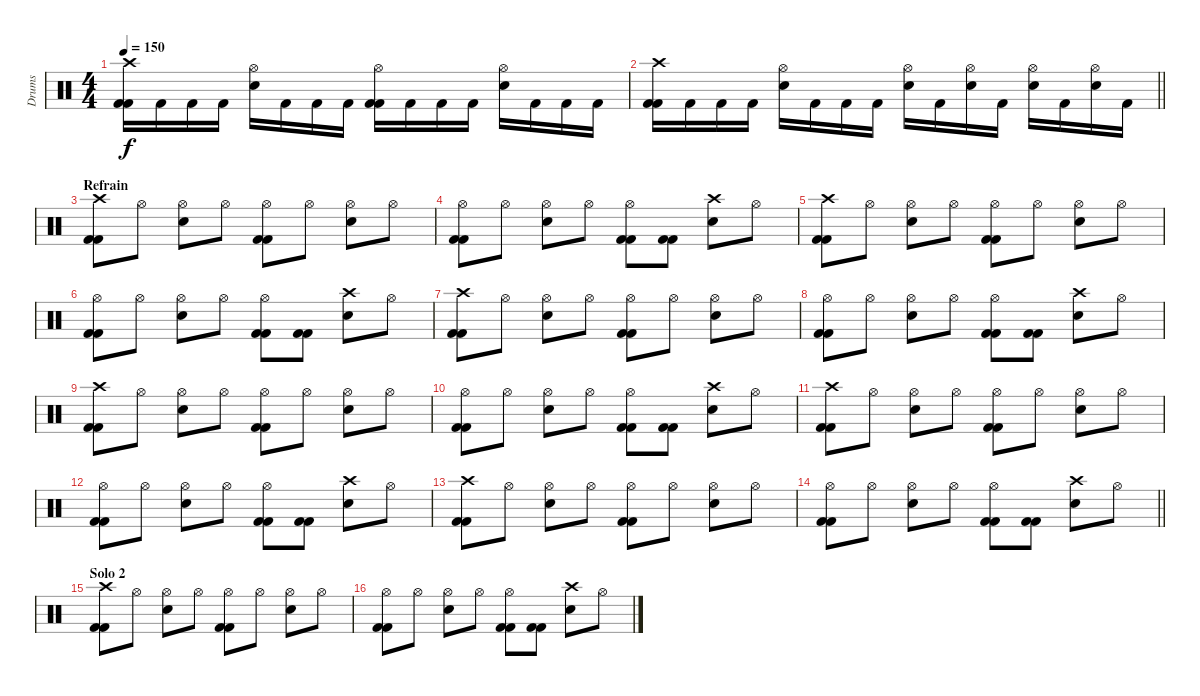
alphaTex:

\track ("Drums" "Drums") {instrument percussion}
\staff {score}
\articulation defaults
\ts (4 4)
\tempo 150
\clef neutral
\ks c
("Crash high (hit)" "Kick (hit) 2" "Kick (hit) 2").16{dy f} "Kick (hit) 2".16 "Kick (hit) 2".16 "Kick (hit) 2".16 ("Electric Snare (hit)" "Hi-Hat (open)").16 "Kick (hit) 2".16 "Kick (hit) 2".16 "Kick (hit) 2".16 ("Hi-Hat (open)" "Kick (hit) 2" "Kick (hit) 2").16 "Kick (hit) 2".16 "Kick (hit) 2".16 "Kick (hit) 2".16 ("Electric Snare (hit)" "Hi-Hat (open)").16 "Kick (hit) 2".16 "Kick (hit) 2".16 "Kick (hit) 2".16 |
\barLineRight lightlight
("Crash high (hit)" "Kick (hit) 2" "Kick (hit) 2").16 "Kick (hit) 2".16 "Kick (hit) 2".16 "Kick (hit) 2".16 ("Electric Snare (hit)" "Hi-Hat (open)").16 "Kick (hit) 2".16 "Kick (hit) 2".16 "Kick (hit) 2".16 ("Hi-Hat (open)" "Electric Snare (hit)").16 "Kick (hit) 2".16 ("Electric Snare (hit)" "Hi-Hat (open)").16 "Kick (hit) 2".16 ("Electric Snare (hit)" "Hi-Hat (open)").16 "Kick (hit) 2".16 ("Hi-Hat (open)" "Electric Snare (hit)").16 "Kick (hit) 2".16 |
\section ("" "Refrain")
("Crash high (hit)" "Kick (hit) 2" "Kick (hit) 2").8 "Hi-Hat (open)".8 ("Electric Snare (hit)" "Hi-Hat (open)").8 "Hi-Hat (open)".8 ("Hi-Hat (open)" "Kick (hit) 2" "Kick (hit) 2").8 "Hi-Hat (open)".8 ("Electric Snare (hit)" "Hi-Hat (open)").8 "Hi-Hat (open)".8 |
("Hi-Hat (open)" "Kick (hit) 2" "Kick (hit) 2").8 "Hi-Hat (open)".8 ("Electric Snare (hit)" "Hi-Hat (open)").8 "Hi-Hat (open)".8 ("Hi-Hat (open)" "Kick (hit) 2" "Kick (hit) 2").8 ("Kick (hit) 2" "Kick (hit) 2").8 ("Electric Snare (hit)" "Crash high (hit)").8 "Hi-Hat (open)".8 |
("Crash high (hit)" "Kick (hit) 2" "Kick (hit) 2").8 "Hi-Hat (open)".8 ("Electric Snare (hit)" "Hi-Hat (open)").8 "Hi-Hat (open)".8 ("Hi-Hat (open)" "Kick (hit) 2" "Kick (hit) 2").8 "Hi-Hat (open)".8 ("Electric Snare (hit)" "Hi-Hat (open)").8 "Hi-Hat (open)".8 |
("Hi-Hat (open)" "Kick (hit) 2" "Kick (hit) 2").8 "Hi-Hat (open)".8 ("Electric Snare (hit)" "Hi-Hat (open)").8 "Hi-Hat (open)".8 ("Hi-Hat (open)" "Kick (hit) 2" "Kick (hit) 2").8 ("Kick (hit) 2" "Kick (hit) 2").8 ("Electric Snare (hit)" "Crash high (hit)").8 "Hi-Hat (open)".8 |
("Crash high (hit)" "Kick (hit) 2" "Kick (hit) 2").8 "Hi-Hat (open)".8 ("Electric Snare (hit)" "Hi-Hat (open)").8 "Hi-Hat (open)".8 ("Hi-Hat (open)" "Kick (hit) 2" "Kick (hit) 2").8 "Hi-Hat (open)".8 ("Electric Snare (hit)" "Hi-Hat (open)").8 "Hi-Hat (open)".8 |
("Hi-Hat (open)" "Kick (hit) 2" "Kick (hit) 2").8 "Hi-Hat (open)".8 ("Electric Snare (hit)" "Hi-Hat (open)").8 "Hi-Hat (open)".8 ("Hi-Hat (open)" "Kick (hit) 2" "Kick (hit) 2").8 ("Kick (hit) 2" "Kick (hit) 2").8 ("Electric Snare (hit)" "Crash high (hit)").8 "Hi-Hat (open)".8 |
("Crash high (hit)" "Kick (hit) 2" "Kick (hit) 2").8 "Hi-Hat (open)".8 ("Electric Snare (hit)" "Hi-Hat (open)").8 "Hi-Hat (open)".8 ("Hi-Hat (open)" "Kick (hit) 2" "Kick (hit) 2").8 "Hi-Hat (open)".8 ("Electric Snare (hit)" "Hi-Hat (open)").8 "Hi-Hat (open)".8 |
("Hi-Hat (open)" "Kick (hit) 2" "Kick (hit) 2").8 "Hi-Hat (open)".8 ("Electric Snare (hit)" "Hi-Hat (open)").8 "Hi-Hat (open)".8 ("Hi-Hat (open)" "Kick (hit) 2" "Kick (hit) 2").8 ("Kick (hit) 2" "Kick (hit) 2").8 ("Electric Snare (hit)" "Crash high (hit)").8 "Hi-Hat (open)".8 |
("Crash high (hit)" "Kick (hit) 2" "Kick (hit) 2").8 "Hi-Hat (open)".8 ("Electric Snare (hit)" "Hi-Hat (open)").8 "Hi-Hat (open)".8 ("Hi-Hat (open)" "Kick (hit) 2" "Kick (hit) 2").8 "Hi-Hat (open)".8 ("Electric Snare (hit)" "Hi-Hat (open)").8 "Hi-Hat (open)".8 |
("Hi-Hat (open)" "Kick (hit) 2" "Kick (hit) 2").8 "Hi-Hat (open)".8 ("Electric Snare (hit)" "Hi-Hat (open)").8 "Hi-Hat (open)".8 ("Hi-Hat (open)" "Kick (hit) 2" "Kick (hit) 2").8 ("Kick (hit) 2" "Kick (hit) 2").8 ("Electric Snare (hit)" "Crash high (hit)").8 "Hi-Hat (open)".8 |
("Crash high (hit)" "Kick (hit) 2" "Kick (hit) 2").8 "Hi-Hat (open)".8 ("Electric Snare (hit)" "Hi-Hat (open)").8 "Hi-Hat (open)".8 ("Hi-Hat (open)" "Kick (hit) 2" "Kick (hit) 2").8 "Hi-Hat (open)".8 ("Electric Snare (hit)" "Hi-Hat (open)").8 "Hi-Hat (open)".8 |
\barLineRight lightlight
("Hi-Hat (open)" "Kick (hit) 2" "Kick (hit) 2").8 "Hi-Hat (open)".8 ("Electric Snare (hit)" "Hi-Hat (open)").8 "Hi-Hat (open)".8 ("Hi-Hat (open)" "Kick (hit) 2" "Kick (hit) 2").8 ("Kick (hit) 2" "Kick (hit) 2").8 ("Electric Snare (hit)" "Crash high (hit)").8 "Hi-Hat (open)".8 |
\section ("" "Solo 2")
("Crash high (hit)" "Kick (hit) 2" "Kick (hit) 2").8 "Hi-Hat (open)".8 ("Electric Snare (hit)" "Hi-Hat (open)").8 "Hi-Hat (open)".8 ("Hi-Hat (open)" "Kick (hit) 2" "Kick (hit) 2").8 "Hi-Hat (open)".8 ("Electric Snare (hit)" "Hi-Hat (open)").8 "Hi-Hat (open)".8 |
("Hi-Hat (open)" "Kick (hit) 2" "Kick (hit) 2").8 "Hi-Hat (open)".8 ("Electric Snare (hit)" "Hi-Hat (open)").8 "Hi-Hat (open)".8 ("Hi-Hat (open)" "Kick (hit) 2" "Kick (hit) 2").8 ("Kick (hit) 2" "Kick (hit) 2").8 ("Electric Snare (hit)" "Crash high (hit)").8 "Hi-Hat (open)".8
